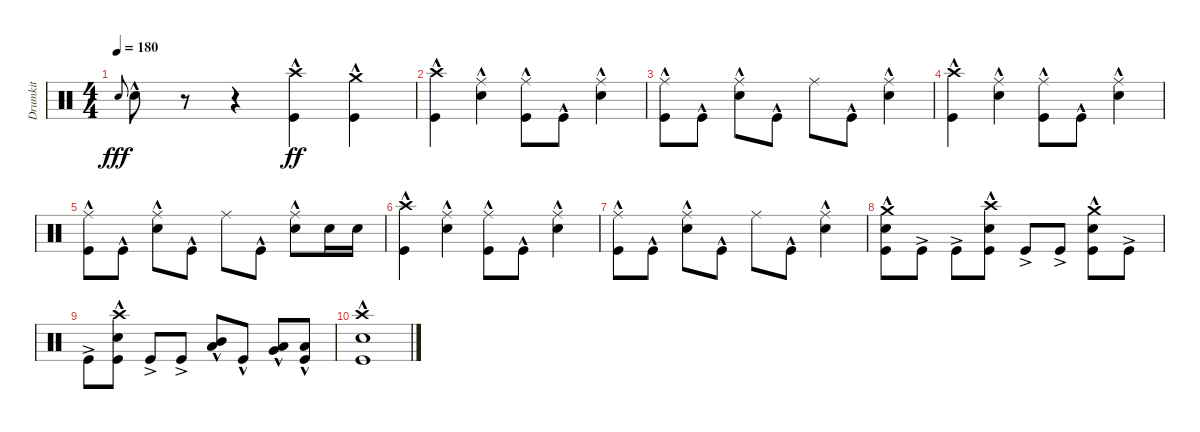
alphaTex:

\track ("Drumkit" "Drumkit") {instrument percussion}
\staff {score}
\articulation defaults
\ts (4 4)
\tempo 180
\clef neutral
\ks c "Snare (hit)".8{gr onbeat dy fff} "Snare (hit) 2"{hac}.8
r.8 r.4 ("Kick (hit)"{hac} "Crash high (hit)"{hac}).4{dy ff} ("Kick (hit)"{hac} "Crash medium (hit)"{hac}).4 |
("Crash high (hit)"{hac} "Kick (hit)"{hac}).4 ("Ride (middle)" "Snare (hit) 2"{hac}).4 ("Ride (middle)" "Kick (hit)"{hac}).8 "Kick (hit)"{hac}.8 ("Ride (middle)" "Snare (hit) 2"{hac}).4 |
("Ride (middle)" "Kick (hit)"{hac}).8 "Kick (hit)"{hac}.8 ("Ride (middle)" "Snare (hit) 2"{hac}).8 "Kick (hit)"{hac}.8 "Ride (middle)".8 "Kick (hit)"{hac}.8 ("Ride (middle)" "Snare (hit) 2"{hac}).4 |
("Crash high (hit)"{hac} "Kick (hit)"{hac}).4 ("Ride (middle)" "Snare (hit) 2"{hac}).4 ("Ride (middle)" "Kick (hit)"{hac}).8 "Kick (hit)"{hac}.8 ("Ride (middle)" "Snare (hit) 2"{hac}).4 |
("Ride (middle)" "Kick (hit)"{hac}).8 "Kick (hit)"{hac}.8 ("Ride (middle)" "Snare (hit) 2"{hac}).8 "Kick (hit)"{hac}.8 "Ride (middle)".8 "Kick (hit)"{hac}.8 ("Ride (middle)" "Snare (hit) 2"{hac}).8 "Snare (hit) 2".16 "Snare (hit) 2".16 |
("Crash high (hit)"{hac} "Kick (hit)"{hac}).4 ("Ride (middle)" "Snare (hit) 2"{hac}).4 ("Ride (middle)" "Kick (hit)"{hac}).8 "Kick (hit)"{hac}.8 ("Ride (middle)" "Snare (hit) 2"{hac}).4 |
("Ride (middle)" "Kick (hit)"{hac}).8 "Kick (hit)"{hac}.8 ("Ride (middle)" "Snare (hit) 2"{hac}).8 "Kick (hit)"{hac}.8 "Ride (middle)".8 "Kick (hit)"{hac}.8 ("Ride (middle)" "Snare (hit) 2"{hac}).4 |
("Snare (hit) 2"{hac} "Kick (hit)"{hac} "Crash medium (hit)"{hac}).8 "Kick (hit)"{ac}.8 "Kick (hit)"{ac}.8 ("Snare (hit) 2"{hac} "Kick (hit)"{hac} "Crash high (hit)"{hac}).8 "Kick (hit)"{ac}.8 "Kick (hit)"{ac}.8 ("Snare (hit) 2"{hac} "Kick (hit)"{hac} "Crash medium (hit)"{hac}).8 "Kick (hit)"{ac}.8 |
"Kick (hit)"{ac}.8 ("Kick (hit)"{hac} "Snare (hit) 2"{hac} "Crash high (hit)"{hac}).8 "Kick (hit)"{ac}.8 "Kick (hit)"{ac}.8 ("Mid Tom (hit)"{hac} "Low Tom (hit)"{hac}).8 "Kick (hit)"{hac}.8 ("Low Tom (hit)"{hac} "Very Low Tom (hit)"{hac}).8 ("Kick (hit)"{hac} "Low Floor Tom (hit)"{hac}).8 |
("Kick (hit)"{hac} "Crash high (hit)"{hac} "Snare (hit) 2"{hac}).1
